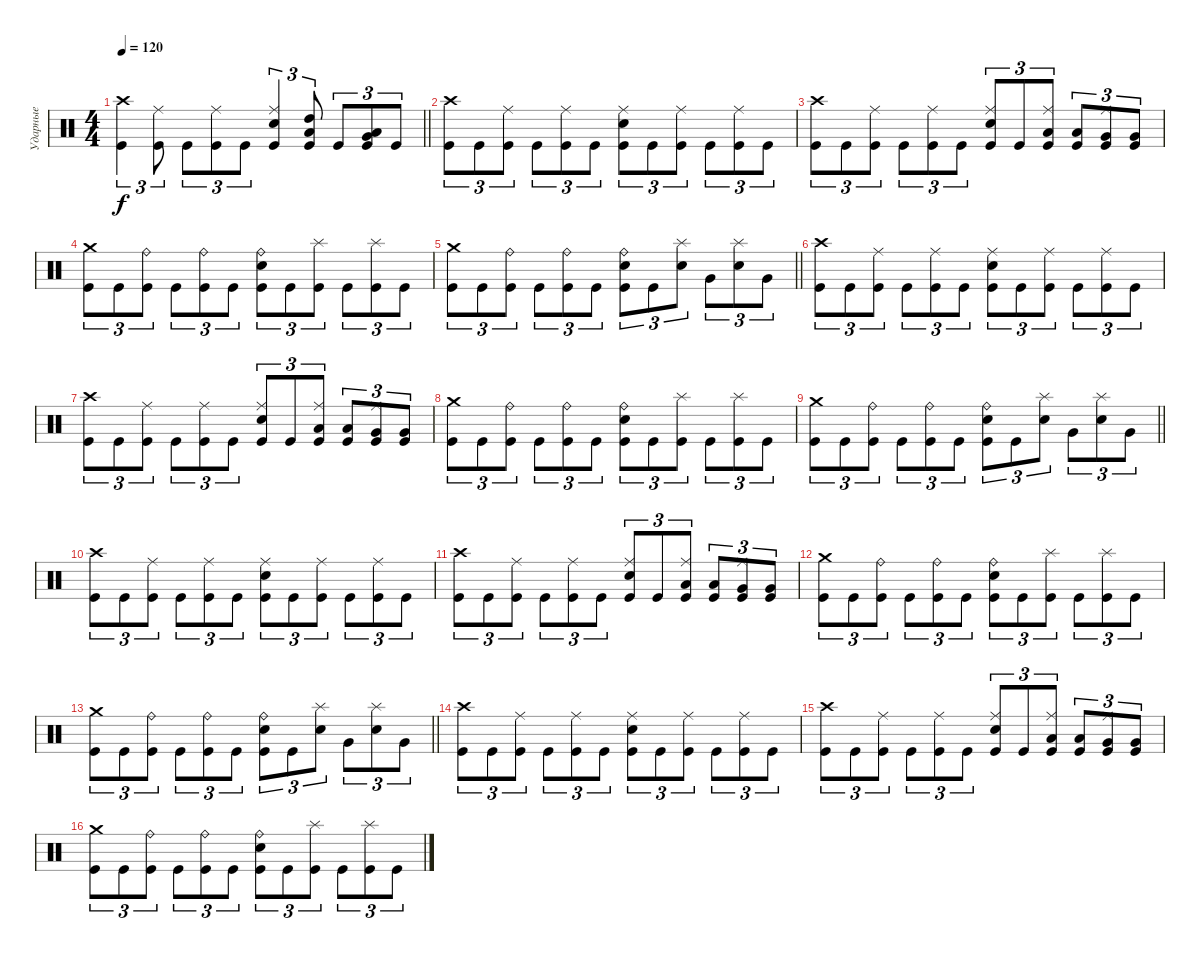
\track ("Ударные" "Ударные") {instrument percussion}
\staff {score}
\articulation defaults
\ts (4 4)
\tempo 120
\clef neutral
\barLineRight lightlight
\ks c
("Crash high (hit)" "Kick (hit)").4{tu (3 2) dy f} ("Ride (middle)" "Kick (hit)").8{tu (3 2)} "Kick (hit)".8{tu (3 2)} ("Ride (middle)" "Kick (hit)").8{tu (3 2)} "Kick (hit)".8{tu (3 2)} ("Ride (middle)" "Electric Snare (hit)" "Kick (hit)").4{tu (3 2)} ("Low Tom (hit)" "High Tom (hit)" "Kick (hit)").8{tu (3 2)} "Kick (hit)".8{tu (3 2)} ("Very Low Tom (hit)" "Low Tom (hit)" "Kick (hit)").8{tu (3 2)} "Kick (hit)".8{tu (3 2)} |
\section ("" " ")
("Crash high (hit)" "Kick (hit)").8{tu (3 2)} "Kick (hit)".8{tu (3 2)} ("Ride (middle)" "Kick (hit)").8{tu (3 2)} "Kick (hit)".8{tu (3 2)} ("Ride (middle)" "Kick (hit)").8{tu (3 2)} "Kick (hit)".8{tu (3 2)} ("Ride (middle)" "Kick (hit)" "Electric Snare (hit)").8{tu (3 2)} "Kick (hit)".8{tu (3 2)} ("Ride (middle)" "Kick (hit)").8{tu (3 2)} "Kick (hit)".8{tu (3 2)} ("Ride (middle)" "Kick (hit)").8{tu (3 2)} "Kick (hit)".8{tu (3 2)} |
("Crash high (hit)" "Kick (hit)").8{tu (3 2)} "Kick (hit)".8{tu (3 2)} ("Ride (middle)" "Kick (hit)").8{tu (3 2)} "Kick (hit)".8{tu (3 2)} ("Ride (middle)" "Kick (hit)").8{tu (3 2)} "Kick (hit)".8{tu (3 2)} ("Ride (middle)" "Kick (hit)" "Electric Snare (hit)").8{tu (3 2)} "Kick (hit)".8{tu (3 2)} ("Low Tom (hit)" "Kick (hit)" "Ride (middle)").8{tu (3 2)} ("Low Tom (hit)" "Kick (hit)").8{tu (3 2)} ("Very Low Tom (hit)" "Kick (hit)" "Ride (middle)").8{tu (3 2)} ("Very Low Tom (hit)" "Kick (hit)").8{tu (3 2)} |
("Crash medium (hit)" "Kick (hit)").8{tu (3 2)} "Kick (hit)".8{tu (3 2)} ("Ride (bell)" "Kick (hit)").8{tu (3 2)} "Kick (hit)".8{tu (3 2)} ("Ride (bell)" "Kick (hit)").8{tu (3 2)} "Kick (hit)".8{tu (3 2)} ("Ride (bell)" "Kick (hit)" "Electric Snare (hit)").8{tu (3 2)} "Kick (hit)".8{tu (3 2)} ("Splash (hit)" "Kick (hit)").8{tu (3 2)} "Kick (hit)".8{tu (3 2)} ("Splash (hit)" "Kick (hit)").8{tu (3 2)} "Kick (hit)".8{tu (3 2)} |
\barLineRight lightlight
("Crash medium (hit)" "Kick (hit)").8{tu (3 2)} "Kick (hit)".8{tu (3 2)} ("Ride (bell)" "Kick (hit)").8{tu (3 2)} "Kick (hit)".8{tu (3 2)} ("Ride (bell)" "Kick (hit)").8{tu (3 2)} "Kick (hit)".8{tu (3 2)} ("Ride (bell)" "Kick (hit)" "Electric Snare (hit)").8{tu (3 2)} "Kick (hit)".8{tu (3 2)} ("Splash (hit)" "Electric Snare (hit)").8{tu (3 2)} "Very Low Tom (hit)".8{tu (3 2)} ("Splash (hit)" "Electric Snare (hit)").8{tu (3 2)} "Very Low Tom (hit)".8{tu (3 2)} |
("Crash high (hit)" "Kick (hit)").8{tu (3 2)} "Kick (hit)".8{tu (3 2)} ("Ride (middle)" "Kick (hit)").8{tu (3 2)} "Kick (hit)".8{tu (3 2)} ("Ride (middle)" "Kick (hit)").8{tu (3 2)} "Kick (hit)".8{tu (3 2)} ("Ride (middle)" "Kick (hit)" "Electric Snare (hit)").8{tu (3 2)} "Kick (hit)".8{tu (3 2)} ("Ride (middle)" "Kick (hit)").8{tu (3 2)} "Kick (hit)".8{tu (3 2)} ("Ride (middle)" "Kick (hit)").8{tu (3 2)} "Kick (hit)".8{tu (3 2)} |
("Crash high (hit)" "Kick (hit)").8{tu (3 2)} "Kick (hit)".8{tu (3 2)} ("Ride (middle)" "Kick (hit)").8{tu (3 2)} "Kick (hit)".8{tu (3 2)} ("Ride (middle)" "Kick (hit)").8{tu (3 2)} "Kick (hit)".8{tu (3 2)} ("Ride (middle)" "Kick (hit)" "Electric Snare (hit)").8{tu (3 2)} "Kick (hit)".8{tu (3 2)} ("Low Tom (hit)" "Kick (hit)" "Ride (middle)").8{tu (3 2)} ("Low Tom (hit)" "Kick (hit)").8{tu (3 2)} ("Very Low Tom (hit)" "Kick (hit)" "Ride (middle)").8{tu (3 2)} ("Very Low Tom (hit)" "Kick (hit)").8{tu (3 2)} |
("Crash medium (hit)" "Kick (hit)").8{tu (3 2)} "Kick (hit)".8{tu (3 2)} ("Ride (bell)" "Kick (hit)").8{tu (3 2)} "Kick (hit)".8{tu (3 2)} ("Ride (bell)" "Kick (hit)").8{tu (3 2)} "Kick (hit)".8{tu (3 2)} ("Ride (bell)" "Kick (hit)" "Electric Snare (hit)").8{tu (3 2)} "Kick (hit)".8{tu (3 2)} ("Splash (hit)" "Kick (hit)").8{tu (3 2)} "Kick (hit)".8{tu (3 2)} ("Splash (hit)" "Kick (hit)").8{tu (3 2)} "Kick (hit)".8{tu (3 2)} |
\barLineRight lightlight
("Crash medium (hit)" "Kick (hit)").8{tu (3 2)} "Kick (hit)".8{tu (3 2)} ("Ride (bell)" "Kick (hit)").8{tu (3 2)} "Kick (hit)".8{tu (3 2)} ("Ride (bell)" "Kick (hit)").8{tu (3 2)} "Kick (hit)".8{tu (3 2)} ("Ride (bell)" "Kick (hit)" "Electric Snare (hit)").8{tu (3 2)} "Kick (hit)".8{tu (3 2)} ("Splash (hit)" "Electric Snare (hit)").8{tu (3 2)} "Very Low Tom (hit)".8{tu (3 2)} ("Splash (hit)" "Electric Snare (hit)").8{tu (3 2)} "Very Low Tom (hit)".8{tu (3 2)} |
\section ("" " ")
("Crash high (hit)" "Kick (hit)").8{tu (3 2)} "Kick (hit)".8{tu (3 2)} ("Ride (middle)" "Kick (hit)").8{tu (3 2)} "Kick (hit)".8{tu (3 2)} ("Ride (middle)" "Kick (hit)").8{tu (3 2)} "Kick (hit)".8{tu (3 2)} ("Ride (middle)" "Kick (hit)" "Electric Snare (hit)").8{tu (3 2)} "Kick (hit)".8{tu (3 2)} ("Ride (middle)" "Kick (hit)").8{tu (3 2)} "Kick (hit)".8{tu (3 2)} ("Ride (middle)" "Kick (hit)").8{tu (3 2)} "Kick (hit)".8{tu (3 2)} |
("Crash high (hit)" "Kick (hit)").8{tu (3 2)} "Kick (hit)".8{tu (3 2)} ("Ride (middle)" "Kick (hit)").8{tu (3 2)} "Kick (hit)".8{tu (3 2)} ("Ride (middle)" "Kick (hit)").8{tu (3 2)} "Kick (hit)".8{tu (3 2)} ("Ride (middle)" "Kick (hit)" "Electric Snare (hit)").8{tu (3 2)} "Kick (hit)".8{tu (3 2)} ("Low Tom (hit)" "Kick (hit)" "Ride (middle)").8{tu (3 2)} ("Low Tom (hit)" "Kick (hit)").8{tu (3 2)} ("Very Low Tom (hit)" "Kick (hit)" "Ride (middle)").8{tu (3 2)} ("Very Low Tom (hit)" "Kick (hit)").8{tu (3 2)} |
("Crash medium (hit)" "Kick (hit)").8{tu (3 2)} "Kick (hit)".8{tu (3 2)} ("Ride (bell)" "Kick (hit)").8{tu (3 2)} "Kick (hit)".8{tu (3 2)} ("Ride (bell)" "Kick (hit)").8{tu (3 2)} "Kick (hit)".8{tu (3 2)} ("Ride (bell)" "Kick (hit)" "Electric Snare (hit)").8{tu (3 2)} "Kick (hit)".8{tu (3 2)} ("Splash (hit)" "Kick (hit)").8{tu (3 2)} "Kick (hit)".8{tu (3 2)} ("Splash (hit)" "Kick (hit)").8{tu (3 2)} "Kick (hit)".8{tu (3 2)} |
\barLineRight lightlight
("Crash medium (hit)" "Kick (hit)").8{tu (3 2)} "Kick (hit)".8{tu (3 2)} ("Ride (bell)" "Kick (hit)").8{tu (3 2)} "Kick (hit)".8{tu (3 2)} ("Ride (bell)" "Kick (hit)").8{tu (3 2)} "Kick (hit)".8{tu (3 2)} ("Ride (bell)" "Kick (hit)" "Electric Snare (hit)").8{tu (3 2)} "Kick (hit)".8{tu (3 2)} ("Splash (hit)" "Electric Snare (hit)").8{tu (3 2)} "Very Low Tom (hit)".8{tu (3 2)} ("Splash (hit)" "Electric Snare (hit)").8{tu (3 2)} "Very Low Tom (hit)".8{tu (3 2)} |
("Crash high (hit)" "Kick (hit)").8{tu (3 2)} "Kick (hit)".8{tu (3 2)} ("Ride (middle)" "Kick (hit)").8{tu (3 2)} "Kick (hit)".8{tu (3 2)} ("Ride (middle)" "Kick (hit)").8{tu (3 2)} "Kick (hit)".8{tu (3 2)} ("Ride (middle)" "Kick (hit)" "Electric Snare (hit)").8{tu (3 2)} "Kick (hit)".8{tu (3 2)} ("Ride (middle)" "Kick (hit)").8{tu (3 2)} "Kick (hit)".8{tu (3 2)} ("Ride (middle)" "Kick (hit)").8{tu (3 2)} "Kick (hit)".8{tu (3 2)} |
("Crash high (hit)" "Kick (hit)").8{tu (3 2)} "Kick (hit)".8{tu (3 2)} ("Ride (middle)" "Kick (hit)").8{tu (3 2)} "Kick (hit)".8{tu (3 2)} ("Ride (middle)" "Kick (hit)").8{tu (3 2)} "Kick (hit)".8{tu (3 2)} ("Ride (middle)" "Kick (hit)" "Electric Snare (hit)").8{tu (3 2)} "Kick (hit)".8{tu (3 2)} ("Low Tom (hit)" "Kick (hit)" "Ride (middle)").8{tu (3 2)} ("Low Tom (hit)" "Kick (hit)").8{tu (3 2)} ("Very Low Tom (hit)" "Kick (hit)" "Ride (middle)").8{tu (3 2)} ("Very Low Tom (hit)" "Kick (hit)").8{tu (3 2)} |
("Crash medium (hit)" "Kick (hit)").8{tu (3 2)} "Kick (hit)".8{tu (3 2)} ("Ride (bell)" "Kick (hit)").8{tu (3 2)} "Kick (hit)".8{tu (3 2)} ("Ride (bell)" "Kick (hit)").8{tu (3 2)} "Kick (hit)".8{tu (3 2)} ("Ride (bell)" "Kick (hit)" "Electric Snare (hit)").8{tu (3 2)} "Kick (hit)".8{tu (3 2)} ("Splash (hit)" "Kick (hit)").8{tu (3 2)} "Kick (hit)".8{tu (3 2)} ("Splash (hit)" "Kick (hit)").8{tu (3 2)} "Kick (hit)".8{tu (3 2)}
